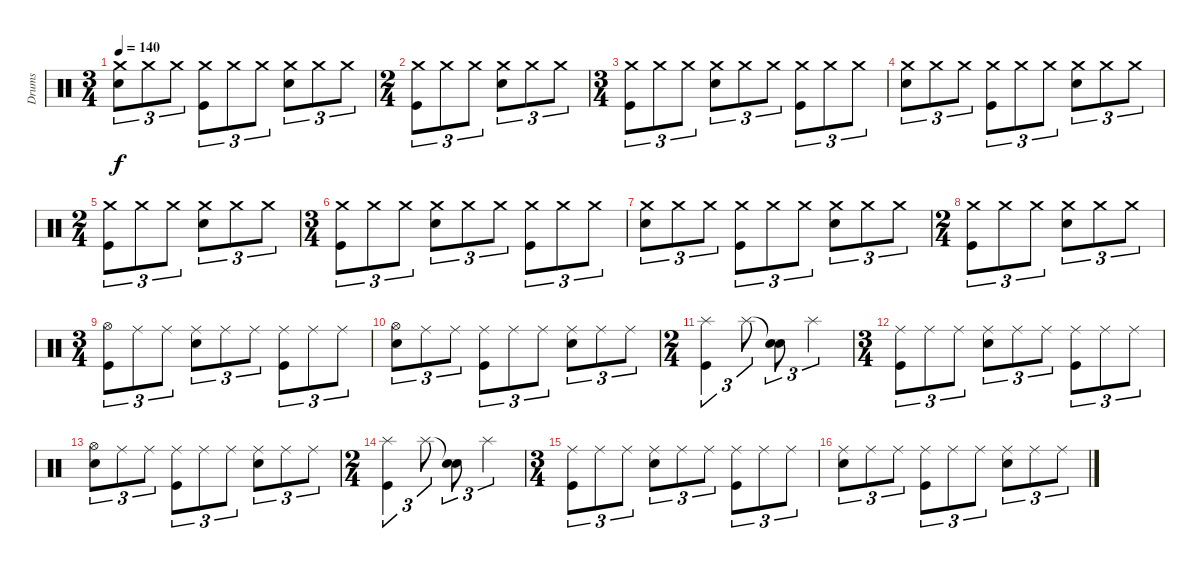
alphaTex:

\track ("Drums" "Drums") {instrument percussion}
\staff {score}
\articulation defaults
\ts (3 4)
\tempo 140
\clef neutral
\ks c
("Crash medium (hit)" "Electric Snare (hit)").8{tu (3 2) dy f} "Crash medium (hit)".8{tu (3 2)} "Crash medium (hit)".8{tu (3 2)} ("Crash medium (hit)" "Kick (hit)").8{tu (3 2)} "Crash medium (hit)".8{tu (3 2)} "Crash medium (hit)".8{tu (3 2)} ("Crash medium (hit)" "Electric Snare (hit)").8{tu (3 2)} "Crash medium (hit)".8{tu (3 2)} "Crash medium (hit)".8{tu (3 2)} |
\ts (2 4)
("Crash medium (hit)" "Kick (hit)").8{tu (3 2)} "Crash medium (hit)".8{tu (3 2)} "Crash medium (hit)".8{tu (3 2)} ("Crash medium (hit)" "Electric Snare (hit)").8{tu (3 2)} "Crash medium (hit)".8{tu (3 2)} "Crash medium (hit)".8{tu (3 2)} |
\ts (3 4)
("Crash medium (hit)" "Kick (hit)").8{tu (3 2)} "Crash medium (hit)".8{tu (3 2)} "Crash medium (hit)".8{tu (3 2)} ("Crash medium (hit)" "Electric Snare (hit)").8{tu (3 2)} "Crash medium (hit)".8{tu (3 2)} "Crash medium (hit)".8{tu (3 2)} ("Crash medium (hit)" "Kick (hit)").8{tu (3 2)} "Crash medium (hit)".8{tu (3 2)} "Crash medium (hit)".8{tu (3 2)} |
("Crash medium (hit)" "Electric Snare (hit)").8{tu (3 2)} "Crash medium (hit)".8{tu (3 2)} "Crash medium (hit)".8{tu (3 2)} ("Crash medium (hit)" "Kick (hit)").8{tu (3 2)} "Crash medium (hit)".8{tu (3 2)} "Crash medium (hit)".8{tu (3 2)} ("Crash medium (hit)" "Electric Snare (hit)").8{tu (3 2)} "Crash medium (hit)".8{tu (3 2)} "Crash medium (hit)".8{tu (3 2)} |
\ts (2 4)
("Crash medium (hit)" "Kick (hit)").8{tu (3 2)} "Crash medium (hit)".8{tu (3 2)} "Crash medium (hit)".8{tu (3 2)} ("Crash medium (hit)" "Electric Snare (hit)").8{tu (3 2)} "Crash medium (hit)".8{tu (3 2)} "Crash medium (hit)".8{tu (3 2)} |
\ts (3 4)
("Crash medium (hit)" "Kick (hit)").8{tu (3 2)} "Crash medium (hit)".8{tu (3 2)} "Crash medium (hit)".8{tu (3 2)} ("Crash medium (hit)" "Electric Snare (hit)").8{tu (3 2)} "Crash medium (hit)".8{tu (3 2)} "Crash medium (hit)".8{tu (3 2)} ("Crash medium (hit)" "Kick (hit)").8{tu (3 2)} "Crash medium (hit)".8{tu (3 2)} "Crash medium (hit)".8{tu (3 2)} |
("Crash medium (hit)" "Electric Snare (hit)").8{tu (3 2)} "Crash medium (hit)".8{tu (3 2)} "Crash medium (hit)".8{tu (3 2)} ("Crash medium (hit)" "Kick (hit)").8{tu (3 2)} "Crash medium (hit)".8{tu (3 2)} "Crash medium (hit)".8{tu (3 2)} ("Crash medium (hit)" "Electric Snare (hit)").8{tu (3 2)} "Crash medium (hit)".8{tu (3 2)} "Crash medium (hit)".8{tu (3 2)} |
\ts (2 4)
("Crash medium (hit)" "Kick (hit)").8{tu (3 2)} "Crash medium (hit)".8{tu (3 2)} "Crash medium (hit)".8{tu (3 2)} ("Crash medium (hit)" "Electric Snare (hit)").8{tu (3 2)} "Crash medium (hit)".8{tu (3 2)} "Crash medium (hit)".8{tu (3 2)} |
\ts (3 4)
("Hi-Hat (open)" "Kick (hit)").8{tu (3 2)} "Ride (middle)".8{tu (3 2)} "Ride (middle)".8{tu (3 2)} ("Ride (middle)" "Electric Snare (hit)").8{tu (3 2)} "Ride (middle)".8{tu (3 2)} "Ride (middle)".8{tu (3 2)} ("Ride (middle)" "Kick (hit)").8{tu (3 2)} "Ride (middle)".8{tu (3 2)} "Ride (middle)".8{tu (3 2)} |
("Hi-Hat (open)" "Electric Snare (hit)").8{tu (3 2)} "Ride (middle)".8{tu (3 2)} "Ride (middle)".8{tu (3 2)} ("Ride (middle)" "Kick (hit)").8{tu (3 2)} "Ride (middle)".8{tu (3 2)} "Ride (middle)".8{tu (3 2)} ("Ride (middle)" "Electric Snare (hit)").8{tu (3 2)} "Ride (middle)".8{tu (3 2)} "Ride (middle)".8{tu (3 2)} |
\ts (2 4)
("Splash (hit)" "Kick (hit)").4{tu (3 2)} "Splash (hit)".8{tu (3 2)} ("Snare (hit)"{t} "Electric Snare (hit)").8{tu (3 2)} "Splash (hit)".4{tu (3 2)} |
\ts (3 4)
("Ride (middle)" "Kick (hit)").8{tu (3 2)} "Ride (middle)".8{tu (3 2)} "Ride (middle)".8{tu (3 2)} ("Ride (middle)" "Electric Snare (hit)").8{tu (3 2)} "Ride (middle)".8{tu (3 2)} "Ride (middle)".8{tu (3 2)} ("Ride (middle)" "Kick (hit)").8{tu (3 2)} "Ride (middle)".8{tu (3 2)} "Ride (middle)".8{tu (3 2)} |
("Hi-Hat (open)" "Electric Snare (hit)").8{tu (3 2)} "Ride (middle)".8{tu (3 2)} "Ride (middle)".8{tu (3 2)} ("Ride (middle)" "Kick (hit)").8{tu (3 2)} "Ride (middle)".8{tu (3 2)} "Ride (middle)".8{tu (3 2)} ("Ride (middle)" "Electric Snare (hit)").8{tu (3 2)} "Ride (middle)".8{tu (3 2)} "Ride (middle)".8{tu (3 2)} |
\ts (2 4)
("Splash (hit)" "Kick (hit)").4{tu (3 2)} "Splash (hit)".8{tu (3 2)} ("Snare (hit)"{t} "Electric Snare (hit)").8{tu (3 2)} "Splash (hit)".4{tu (3 2)} |
\ts (3 4)
("Ride (middle)" "Kick (hit)").8{tu (3 2)} "Ride (middle)".8{tu (3 2)} "Ride (middle)".8{tu (3 2)} ("Ride (middle)" "Electric Snare (hit)").8{tu (3 2)} "Ride (middle)".8{tu (3 2)} "Ride (middle)".8{tu (3 2)} ("Ride (middle)" "Kick (hit)").8{tu (3 2)} "Ride (middle)".8{tu (3 2)} "Ride (middle)".8{tu (3 2)} |
("Ride (middle)" "Electric Snare (hit)").8{tu (3 2)} "Ride (middle)".8{tu (3 2)} "Ride (middle)".8{tu (3 2)} ("Ride (middle)" "Kick (hit)").8{tu (3 2)} "Ride (middle)".8{tu (3 2)} "Ride (middle)".8{tu (3 2)} ("Ride (middle)" "Electric Snare (hit)").8{tu (3 2)} "Ride (middle)".8{tu (3 2)} "Ride (middle)".8{tu (3 2)}
